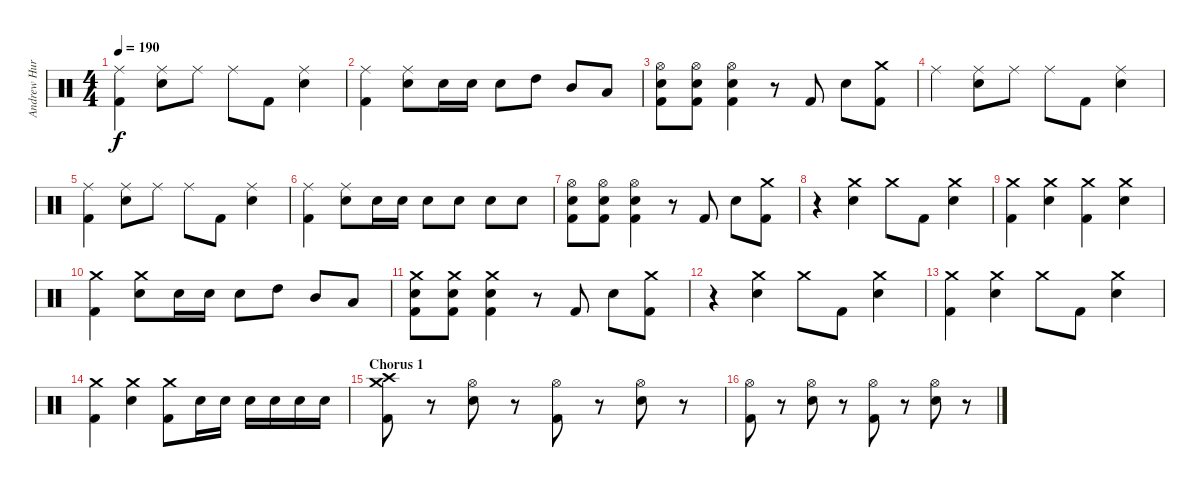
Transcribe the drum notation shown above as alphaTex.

\track ("Andrew Hurley (Drums)" "Andrew Hur") {instrument percussion}
\staff {score}
\articulation defaults
\ts (4 4)
\tempo 190
\clef neutral
\ks c
("Ride (middle)" "Kick (hit) 2").4{dy f} ("Ride (middle)" "Electric Snare (hit)").8 "Ride (middle)".8 "Ride (middle)".8 "Kick (hit) 2".8 ("Ride (middle)" "Electric Snare (hit)").4 |
("Ride (middle)" "Kick (hit) 2").4 ("Ride (middle)" "Electric Snare (hit)").8 "Electric Snare (hit)".16 "Electric Snare (hit)".16 "Electric Snare (hit)".8 "High Tom (hit)".8 "Mid Tom (hit)".8 "Low Tom (hit)".8 |
("Hi-Hat (open)" "Electric Snare (hit)" "Kick (hit) 2").8 ("Hi-Hat (open)" "Electric Snare (hit)" "Kick (hit) 2").8 ("Hi-Hat (open)" "Electric Snare (hit)" "Kick (hit) 2").4 r.8 "Kick (hit) 2".8 "Electric Snare (hit)".8 ("Crash medium (hit)" "Kick (hit) 2").8 |
"Ride (middle)".4 ("Ride (middle)" "Electric Snare (hit)").8 "Ride (middle)".8 "Ride (middle)".8 "Kick (hit) 2".8 ("Ride (middle)" "Electric Snare (hit)").4 |
("Ride (middle)" "Kick (hit) 2").4 ("Ride (middle)" "Electric Snare (hit)").8 "Ride (middle)".8 "Ride (middle)".8 "Kick (hit) 2".8 ("Ride (middle)" "Electric Snare (hit)").4 |
("Ride (middle)" "Kick (hit) 2").4 ("Ride (middle)" "Electric Snare (hit)").8 "Electric Snare (hit)".16 "Electric Snare (hit)".16 "Electric Snare (hit)".8 "Electric Snare (hit)".8 "Electric Snare (hit)".8 "Electric Snare (hit)".8 |
("Hi-Hat (open)" "Electric Snare (hit)" "Kick (hit) 2").8 ("Hi-Hat (open)" "Electric Snare (hit)" "Kick (hit) 2").8 ("Hi-Hat (open)" "Electric Snare (hit)" "Kick (hit) 2").4 r.8 "Kick (hit) 2".8 "Electric Snare (hit)".8 ("Crash medium (hit)" "Kick (hit) 2").8 |
r.4 ("Crash medium (hit)" "Electric Snare (hit)").4 "Crash medium (hit)".8 "Kick (hit) 2".8 ("Crash medium (hit)" "Electric Snare (hit)").4 |
("Crash medium (hit)" "Kick (hit) 2").4 ("Crash medium (hit)" "Electric Snare (hit)").4 ("Crash medium (hit)" "Kick (hit) 2").4 ("Crash medium (hit)" "Electric Snare (hit)").4 |
("Crash medium (hit)" "Kick (hit) 2").4 ("Crash medium (hit)" "Electric Snare (hit)").8 "Electric Snare (hit)".16 "Electric Snare (hit)".16 "Electric Snare (hit)".8 "High Tom (hit)".8 "Mid Tom (hit)".8 "Low Tom (hit)".8 |
("Crash medium (hit)" "Electric Snare (hit)" "Kick (hit) 2").8 ("Crash medium (hit)" "Electric Snare (hit)" "Kick (hit) 2").8 ("Crash medium (hit)" "Electric Snare (hit)" "Kick (hit) 2").4 r.8 "Kick (hit) 2".8 "Electric Snare (hit)".8 ("Crash medium (hit)" "Kick (hit) 2").8 |
r.4 ("Crash medium (hit)" "Electric Snare (hit)").4 "Crash medium (hit)".8 "Kick (hit) 2".8 ("Crash medium (hit)" "Electric Snare (hit)").4 |
("Crash medium (hit)" "Kick (hit) 2").4 ("Crash medium (hit)" "Electric Snare (hit)").4 "Crash medium (hit)".8 "Kick (hit) 2".8 ("Crash medium (hit)" "Electric Snare (hit)").4 |
("Crash medium (hit)" "Kick (hit) 2").4 ("Crash medium (hit)" "Electric Snare (hit)").4 ("Crash medium (hit)" "Kick (hit) 2").8 "Electric Snare (hit)".16 "Electric Snare (hit)".16 "Electric Snare (hit)".16 "Electric Snare (hit)".16 "Electric Snare (hit)".16 "Electric Snare (hit)".16 |
\section ("" "Chorus 1")
("Crash high (hit)" "Crash medium (hit)" "Kick (hit) 2").8 r.8 ("Hi-Hat (open)" "Electric Snare (hit)").8 r.8 ("Hi-Hat (open)" "Kick (hit) 2").8 r.8 ("Hi-Hat (open)" "Electric Snare (hit)").8 r.8 |
("Hi-Hat (open)" "Kick (hit) 2").8 r.8 ("Hi-Hat (open)" "Electric Snare (hit)").8 r.8 ("Hi-Hat (open)" "Kick (hit) 2").8 r.8 ("Hi-Hat (open)" "Electric Snare (hit)").8 r.8
